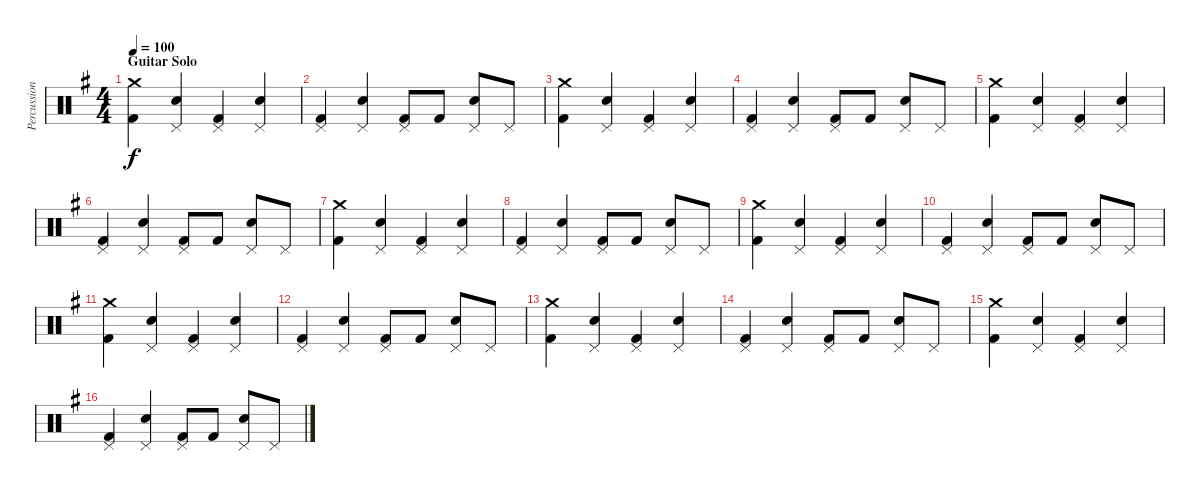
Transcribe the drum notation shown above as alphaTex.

\track ("Percussion" "Percussion") {instrument percussion}
\staff {score}
\articulation defaults
\ts (4 4)
\section ("" "Guitar Solo")
\tempo 100
\clef neutral
\ks g
("Kick (hit) 2" "Crash medium (hit)").4{dy f} ("Snare (hit) 2" "Pedal Hi-Hat (hit)").4 ("Kick (hit) 2" "Pedal Hi-Hat (hit)").4 ("Snare (hit) 2" "Pedal Hi-Hat (hit)").4 |
("Kick (hit) 2" "Pedal Hi-Hat (hit)").4 ("Snare (hit) 2" "Pedal Hi-Hat (hit)").4 ("Kick (hit) 2" "Pedal Hi-Hat (hit)").8 "Kick (hit) 2".8 ("Snare (hit) 2" "Pedal Hi-Hat (hit)").8 "Pedal Hi-Hat (hit)".8 |
("Kick (hit) 2" "Crash medium (hit)").4 ("Snare (hit) 2" "Pedal Hi-Hat (hit)").4 ("Kick (hit) 2" "Pedal Hi-Hat (hit)").4 ("Snare (hit) 2" "Pedal Hi-Hat (hit)").4 |
("Kick (hit) 2" "Pedal Hi-Hat (hit)").4 ("Snare (hit) 2" "Pedal Hi-Hat (hit)").4 ("Kick (hit) 2" "Pedal Hi-Hat (hit)").8 "Kick (hit) 2".8 ("Snare (hit) 2" "Pedal Hi-Hat (hit)").8 "Pedal Hi-Hat (hit)".8 |
("Kick (hit) 2" "Crash medium (hit)").4 ("Snare (hit) 2" "Pedal Hi-Hat (hit)").4 ("Kick (hit) 2" "Pedal Hi-Hat (hit)").4 ("Snare (hit) 2" "Pedal Hi-Hat (hit)").4 |
("Kick (hit) 2" "Pedal Hi-Hat (hit)").4 ("Snare (hit) 2" "Pedal Hi-Hat (hit)").4 ("Kick (hit) 2" "Pedal Hi-Hat (hit)").8 "Kick (hit) 2".8 ("Snare (hit) 2" "Pedal Hi-Hat (hit)").8 "Pedal Hi-Hat (hit)".8 |
("Kick (hit) 2" "Crash medium (hit)").4 ("Snare (hit) 2" "Pedal Hi-Hat (hit)").4 ("Kick (hit) 2" "Pedal Hi-Hat (hit)").4 ("Snare (hit) 2" "Pedal Hi-Hat (hit)").4 |
("Kick (hit) 2" "Pedal Hi-Hat (hit)").4 ("Snare (hit) 2" "Pedal Hi-Hat (hit)").4 ("Kick (hit) 2" "Pedal Hi-Hat (hit)").8 "Kick (hit) 2".8 ("Snare (hit) 2" "Pedal Hi-Hat (hit)").8 "Pedal Hi-Hat (hit)".8 |
("Kick (hit) 2" "Crash medium (hit)").4 ("Snare (hit) 2" "Pedal Hi-Hat (hit)").4 ("Kick (hit) 2" "Pedal Hi-Hat (hit)").4 ("Snare (hit) 2" "Pedal Hi-Hat (hit)").4 |
("Kick (hit) 2" "Pedal Hi-Hat (hit)").4 ("Snare (hit) 2" "Pedal Hi-Hat (hit)").4 ("Kick (hit) 2" "Pedal Hi-Hat (hit)").8 "Kick (hit) 2".8 ("Snare (hit) 2" "Pedal Hi-Hat (hit)").8 "Pedal Hi-Hat (hit)".8 |
("Kick (hit) 2" "Crash medium (hit)").4 ("Snare (hit) 2" "Pedal Hi-Hat (hit)").4 ("Kick (hit) 2" "Pedal Hi-Hat (hit)").4 ("Snare (hit) 2" "Pedal Hi-Hat (hit)").4 |
("Kick (hit) 2" "Pedal Hi-Hat (hit)").4 ("Snare (hit) 2" "Pedal Hi-Hat (hit)").4 ("Kick (hit) 2" "Pedal Hi-Hat (hit)").8 "Kick (hit) 2".8 ("Snare (hit) 2" "Pedal Hi-Hat (hit)").8 "Pedal Hi-Hat (hit)".8 |
("Kick (hit) 2" "Crash medium (hit)").4 ("Snare (hit) 2" "Pedal Hi-Hat (hit)").4 ("Kick (hit) 2" "Pedal Hi-Hat (hit)").4 ("Snare (hit) 2" "Pedal Hi-Hat (hit)").4 |
("Kick (hit) 2" "Pedal Hi-Hat (hit)").4 ("Snare (hit) 2" "Pedal Hi-Hat (hit)").4 ("Kick (hit) 2" "Pedal Hi-Hat (hit)").8 "Kick (hit) 2".8 ("Snare (hit) 2" "Pedal Hi-Hat (hit)").8 "Pedal Hi-Hat (hit)".8 |
("Kick (hit) 2" "Crash medium (hit)").4 ("Snare (hit) 2" "Pedal Hi-Hat (hit)").4 ("Kick (hit) 2" "Pedal Hi-Hat (hit)").4 ("Snare (hit) 2" "Pedal Hi-Hat (hit)").4 |
("Kick (hit) 2" "Pedal Hi-Hat (hit)").4 ("Snare (hit) 2" "Pedal Hi-Hat (hit)").4 ("Kick (hit) 2" "Pedal Hi-Hat (hit)").8 "Kick (hit) 2".8 ("Snare (hit) 2" "Pedal Hi-Hat (hit)").8 "Pedal Hi-Hat (hit)".8
